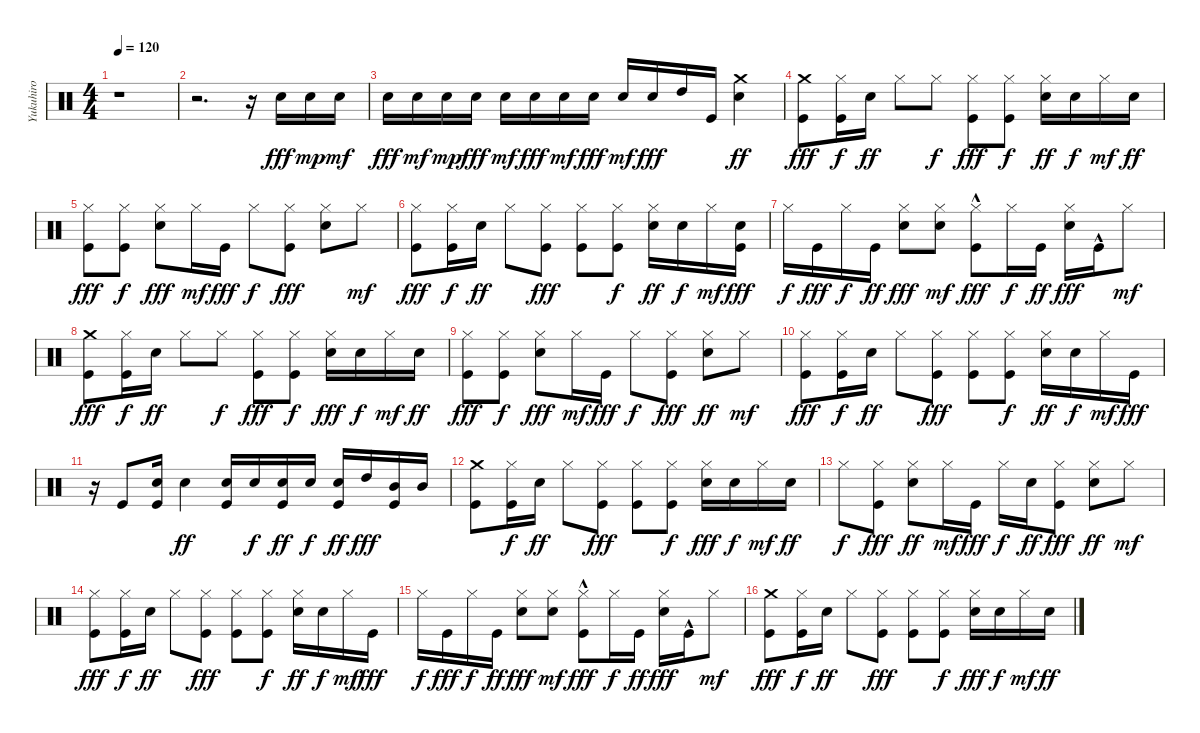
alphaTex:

\track ("Yukuhiro" "Yukuhiro") {instrument percussion}
\staff {score}
\articulation defaults
\ts (4 4)
\tempo 120
\clef neutral
\ks c
r.1{dy fff} |
r.2{d} r.16 "Electric Snare (hit)".16 "Electric Snare (hit)".16{dy mp} "Electric Snare (hit)".16{dy mf} |
"Electric Snare (hit)".16{dy fff} "Electric Snare (hit)".16{dy mf} "Electric Snare (hit)".16{dy mp} "Electric Snare (hit)".16{dy fff} "Electric Snare (hit)".16{dy mf} "Electric Snare (hit)".16{dy fff} "Electric Snare (hit)".16{dy mf} "Electric Snare (hit)".16{dy fff} "Electric Snare (hit)".16{dy mf} "Electric Snare (hit)".16{dy fff} "High Tom (hit)".16 "Kick (hit)".16 ("Crash medium (hit)" "Electric Snare (hit)").4{dy ff} |
("Crash medium (hit)" "Kick (hit)").8{dy fff} ("Kick (hit)" "Hi-Hat (closed)").16{dy f} "Electric Snare (hit)".16{dy ff} "Hi-Hat (closed)".8 "Hi-Hat (closed)".8{dy f} ("Kick (hit)" "Hi-Hat (closed)").8{dy fff} ("Hi-Hat (closed)" "Kick (hit)").8{dy f} ("Hi-Hat (closed)" "Electric Snare (hit)").16{dy ff} "Electric Snare (hit)".16{dy f} "Hi-Hat (closed)".16{dy mf} "Electric Snare (hit)".16{dy ff} |
("Hi-Hat (closed)" "Kick (hit)").8{dy fff} ("Kick (hit)" "Hi-Hat (closed)").8{dy f} ("Electric Snare (hit)" "Hi-Hat (closed)").8{dy fff} "Hi-Hat (closed)".16{dy mf} "Kick (hit)".16{dy fff} "Hi-Hat (closed)".8{dy f} ("Hi-Hat (closed)" "Kick (hit)").8{dy fff} ("Electric Snare (hit)" "Hi-Hat (closed)").8 "Hi-Hat (closed)".8{dy mf} |
("Hi-Hat (closed)" "Kick (hit)").8{dy fff} ("Kick (hit)" "Hi-Hat (closed)").16{dy f} "Electric Snare (hit)".16{dy ff} "Hi-Hat (closed)".8 ("Kick (hit)" "Hi-Hat (closed)").8{dy fff} ("Kick (hit)" "Hi-Hat (closed)").8 ("Kick (hit)" "Hi-Hat (closed)").8{dy f} ("Hi-Hat (closed)" "Electric Snare (hit)").16{dy ff} "Electric Snare (hit)".16{dy f} "Hi-Hat (closed)".16{dy mf} ("Electric Snare (hit)" "Kick (hit)").16{dy fff} |
"Hi-Hat (closed)".16{dy f} "Kick (hit)".16{dy fff} "Hi-Hat (closed)".16{dy f} "Kick (hit)".16{dy ff} ("Electric Snare (hit)" "Hi-Hat (closed)").8{dy fff} ("Electric Snare (hit)" "Hi-Hat (closed)").8{dy mf} ("Hi-Hat (closed)" "Kick (hit)"{hac}).8{dy fff} "Hi-Hat (closed)".16{dy f} "Kick (hit)".16{dy ff} ("Electric Snare (hit)" "Hi-Hat (closed)").16{dy fff} "Kick (hit)"{hac}.16 "Hi-Hat (closed)".8{dy mf} |
("Crash medium (hit)" "Kick (hit)").8{dy fff} ("Kick (hit)" "Hi-Hat (closed)").16{dy f} "Electric Snare (hit)".16{dy ff} "Hi-Hat (closed)".8 "Hi-Hat (closed)".8{dy f} ("Kick (hit)" "Hi-Hat (closed)").8{dy fff} ("Hi-Hat (closed)" "Kick (hit)").8{dy f} ("Electric Snare (hit)" "Hi-Hat (closed)").16{dy fff} "Electric Snare (hit)".16{dy f} "Hi-Hat (closed)".16{dy mf} "Electric Snare (hit)".16{dy ff} |
("Kick (hit)" "Hi-Hat (closed)").8{dy fff} ("Kick (hit)" "Hi-Hat (closed)").8{dy f} ("Electric Snare (hit)" "Hi-Hat (closed)").8{dy fff} "Hi-Hat (closed)".16{dy mf} "Kick (hit)".16{dy fff} "Hi-Hat (closed)".8{dy f} ("Hi-Hat (closed)" "Kick (hit)").8{dy fff} ("Hi-Hat (closed)" "Electric Snare (hit)").8{dy ff} "Hi-Hat (closed)".8{dy mf} |
("Hi-Hat (closed)" "Kick (hit)").8{dy fff} ("Kick (hit)" "Hi-Hat (closed)").16{dy f} "Electric Snare (hit)".16{dy ff} "Hi-Hat (closed)".8 ("Hi-Hat (closed)" "Kick (hit)").8{dy fff} ("Kick (hit)" "Hi-Hat (closed)").8 ("Hi-Hat (closed)" "Kick (hit)").8{dy f} ("Hi-Hat (closed)" "Electric Snare (hit)").16{dy ff} "Electric Snare (hit)".16{dy f} "Hi-Hat (closed)".16{dy mf} "Kick (hit)".16{dy fff} |
r.16 "Kick (hit)".8 ("Kick (hit)" "Electric Snare (hit)").16 "Electric Snare (hit)".4{dy ff} ("Electric Snare (hit)" "Kick (hit)").16 "Electric Snare (hit)".16{dy f} ("Kick (hit)" "Electric Snare (hit)").16{dy ff} "Electric Snare (hit)".16{dy f} ("Kick (hit)" "Electric Snare (hit)").16{dy ff} "High Tom (hit)".16{dy fff} ("Kick (hit)" "Mid Tom (hit)").16 "Mid Tom (hit)".16 |
("Crash medium (hit)" "Kick (hit)").8 ("Kick (hit)" "Hi-Hat (closed)").16{dy f} "Electric Snare (hit)".16{dy ff} "Hi-Hat (closed)".8 ("Hi-Hat (closed)" "Kick (hit)").8{dy fff} ("Hi-Hat (closed)" "Kick (hit)").8 ("Hi-Hat (closed)" "Kick (hit)").8{dy f} ("Electric Snare (hit)" "Hi-Hat (closed)").16{dy fff} "Electric Snare (hit)".16{dy f} "Hi-Hat (closed)".16{dy mf} "Electric Snare (hit)".16{dy ff} |
"Hi-Hat (closed)".8{dy f} ("Kick (hit)" "Hi-Hat (closed)").8{dy fff} ("Hi-Hat (closed)" "Electric Snare (hit)").8{dy ff} "Hi-Hat (closed)".16{dy mf} "Kick (hit)".16{dy fff} "Hi-Hat (closed)".16{dy f} "Electric Snare (hit)".16{dy ff} ("Hi-Hat (closed)" "Kick (hit)").8{dy fff} ("Hi-Hat (closed)" "Electric Snare (hit)").8{dy ff} "Hi-Hat (closed)".8{dy mf} |
("Hi-Hat (closed)" "Kick (hit)").8{dy fff} ("Kick (hit)" "Hi-Hat (closed)").16{dy f} "Electric Snare (hit)".16{dy ff} "Hi-Hat (closed)".8 ("Hi-Hat (closed)" "Kick (hit)").8{dy fff} ("Kick (hit)" "Hi-Hat (closed)").8 ("Hi-Hat (closed)" "Kick (hit)").8{dy f} ("Hi-Hat (closed)" "Electric Snare (hit)").16{dy ff} "Electric Snare (hit)".16{dy f} "Hi-Hat (closed)".16{dy mf} "Kick (hit)".16{dy fff} |
"Hi-Hat (closed)".16{dy f} "Kick (hit)".16{dy fff} "Hi-Hat (closed)".16{dy f} "Kick (hit)".16{dy ff} ("Electric Snare (hit)" "Hi-Hat (closed)").8{dy fff} ("Electric Snare (hit)" "Hi-Hat (closed)").8{dy mf} ("Hi-Hat (closed)" "Kick (hit)"{hac}).8{dy fff} "Hi-Hat (closed)".16{dy f} "Kick (hit)".16{dy ff} ("Electric Snare (hit)" "Hi-Hat (closed)").16{dy fff} "Kick (hit)"{hac}.16 "Hi-Hat (closed)".8{dy mf} |
("Crash medium (hit)" "Kick (hit)").8{dy fff} ("Hi-Hat (closed)" "Kick (hit)").16{dy f} "Electric Snare (hit)".16{dy ff} "Hi-Hat (closed)".8 ("Kick (hit)" "Hi-Hat (closed)").8{dy fff} ("Kick (hit)" "Hi-Hat (closed)").8 ("Hi-Hat (closed)" "Kick (hit)").8{dy f} ("Electric Snare (hit)" "Hi-Hat (closed)").16{dy fff} "Electric Snare (hit)".16{dy f} "Hi-Hat (closed)".16{dy mf} "Electric Snare (hit)".16{dy ff}
